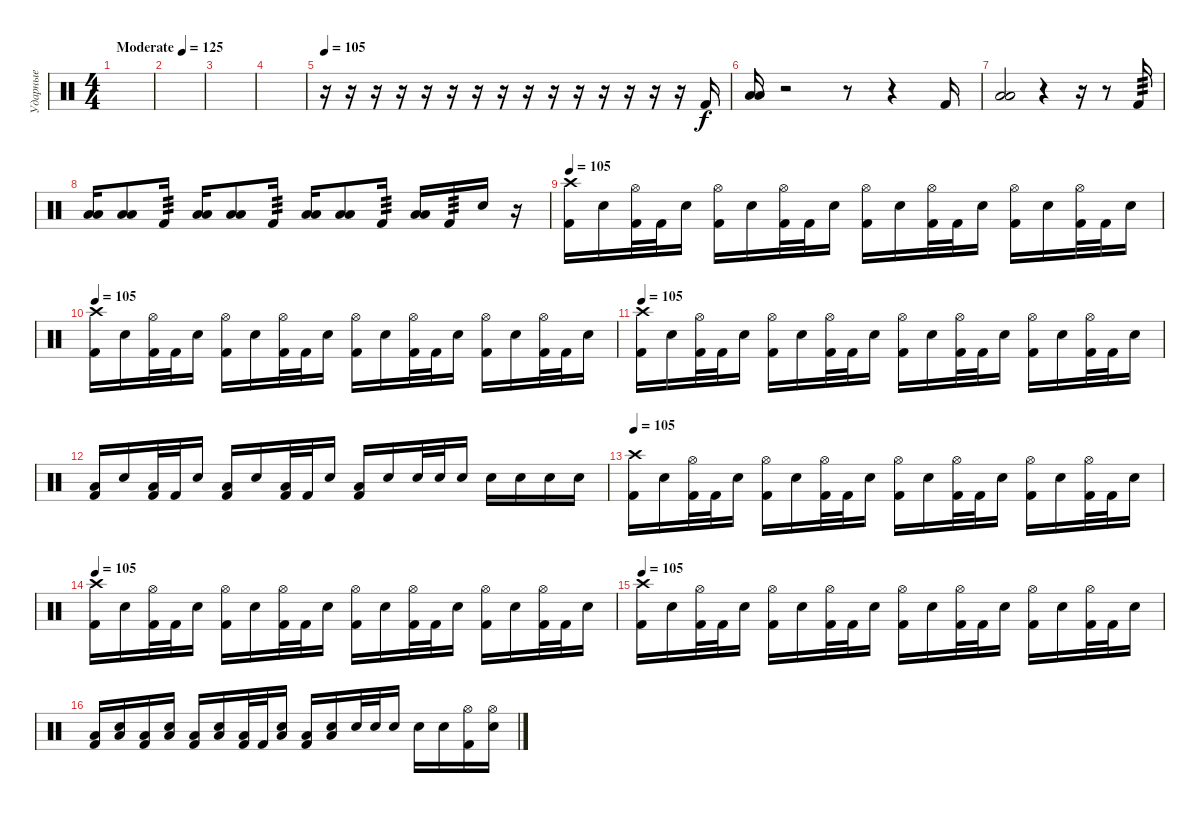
\track ("Ударные" "Ударные") {instrument percussion}
\staff {score}
\articulation defaults
\ts (4 4)
\tempo (125 "Moderate")
\clef neutral
\ks c
|
|
|
|
\tempo 105
r.16 r.16 r.16 r.16 r.16 r.16 r.16 r.16 r.16 r.16 r.16 r.16 r.16 r.16 r.16 "Kick (hit) 2".16 |
("Low Floor Tom (hit)" "Low Tom (hit)").16 r.2 r.8 r.4 "Kick (hit) 2".16 |
("Low Floor Tom (hit)" "Low Tom (hit)").2 r.4 r.16 r.8 "Kick (hit) 2".16{tp 3} |
("Low Floor Tom (hit)" "Low Tom (hit)").16 ("Low Floor Tom (hit)" "Low Tom (hit)").8 "Kick (hit) 2".16{tp 3} ("Low Floor Tom (hit)" "Low Tom (hit)").16 ("Low Floor Tom (hit)" "Low Tom (hit)").8 "Kick (hit) 2".16{tp 3} ("Low Floor Tom (hit)" "Low Tom (hit)").16 ("Low Floor Tom (hit)" "Low Tom (hit)").8 "Kick (hit) 2".16{tp 3} ("Low Floor Tom (hit)" "Low Tom (hit)").16 "Kick (hit) 2".16{tp 3} "Snare (hit) 2".16 r.16 |
\tempo 105
("Crash high (hit)" "Kick (hit) 2").16 "Snare (hit) 2".16 ("Hi-Hat (open)" "Kick (hit) 2").32 "Kick (hit) 2".32 "Snare (hit) 2".16 ("Hi-Hat (open)" "Kick (hit) 2").16 "Snare (hit) 2".16 ("Hi-Hat (open)" "Kick (hit) 2").32 "Kick (hit) 2".32 "Snare (hit) 2".16 ("Hi-Hat (open)" "Kick (hit) 2").16 "Snare (hit) 2".16 ("Hi-Hat (open)" "Kick (hit) 2").32 "Kick (hit) 2".32 "Snare (hit) 2".16 ("Hi-Hat (open)" "Kick (hit) 2").16 "Snare (hit) 2".16 ("Hi-Hat (open)" "Kick (hit) 2").32 "Kick (hit) 2".32 "Snare (hit) 2".16 |
\tempo 105
("Crash high (hit)" "Kick (hit) 2").16 "Snare (hit) 2".16 ("Hi-Hat (open)" "Kick (hit) 2").32 "Kick (hit) 2".32 "Snare (hit) 2".16 ("Hi-Hat (open)" "Kick (hit) 2").16 "Snare (hit) 2".16 ("Hi-Hat (open)" "Kick (hit) 2").32 "Kick (hit) 2".32 "Snare (hit) 2".16 ("Hi-Hat (open)" "Kick (hit) 2").16 "Snare (hit) 2".16 ("Hi-Hat (open)" "Kick (hit) 2").32 "Kick (hit) 2".32 "Snare (hit) 2".16 ("Hi-Hat (open)" "Kick (hit) 2").16 "Snare (hit) 2".16 ("Hi-Hat (open)" "Kick (hit) 2").32 "Kick (hit) 2".32 "Snare (hit) 2".16 |
\tempo 105
("Crash high (hit)" "Kick (hit) 2").16 "Snare (hit) 2".16 ("Hi-Hat (open)" "Kick (hit) 2").32 "Kick (hit) 2".32 "Snare (hit) 2".16 ("Hi-Hat (open)" "Kick (hit) 2").16 "Snare (hit) 2".16 ("Hi-Hat (open)" "Kick (hit) 2").32 "Kick (hit) 2".32 "Snare (hit) 2".16 ("Hi-Hat (open)" "Kick (hit) 2").16 "Snare (hit) 2".16 ("Hi-Hat (open)" "Kick (hit) 2").32 "Kick (hit) 2".32 "Snare (hit) 2".16 ("Hi-Hat (open)" "Kick (hit) 2").16 "Snare (hit) 2".16 ("Hi-Hat (open)" "Kick (hit) 2").32 "Kick (hit) 2".32 "Snare (hit) 2".16 |
("Low Floor Tom (hit)" "Kick (hit) 2").16 "Snare (hit) 2".16 ("Low Floor Tom (hit)" "Kick (hit) 2").32 "Kick (hit) 2".32 "Snare (hit) 2".16 ("Low Floor Tom (hit)" "Kick (hit) 2").16 "Snare (hit) 2".16 ("Low Floor Tom (hit)" "Kick (hit) 2").32 "Kick (hit) 2".32 "Snare (hit) 2".16 ("Low Floor Tom (hit)" "Kick (hit) 2").16 "Snare (hit) 2".16 "Snare (hit) 2".32 "Snare (hit) 2".32 "Snare (hit) 2".16 "Snare (hit) 2".16 "Snare (hit) 2".16 "Snare (hit) 2".16 "Snare (hit) 2".16 |
\tempo 105
("Crash high (hit)" "Kick (hit) 2").16 "Snare (hit) 2".16 ("Hi-Hat (open)" "Kick (hit) 2").32 "Kick (hit) 2".32 "Snare (hit) 2".16 ("Hi-Hat (open)" "Kick (hit) 2").16 "Snare (hit) 2".16 ("Hi-Hat (open)" "Kick (hit) 2").32 "Kick (hit) 2".32 "Snare (hit) 2".16 ("Hi-Hat (open)" "Kick (hit) 2").16 "Snare (hit) 2".16 ("Hi-Hat (open)" "Kick (hit) 2").32 "Kick (hit) 2".32 "Snare (hit) 2".16 ("Hi-Hat (open)" "Kick (hit) 2").16 "Snare (hit) 2".16 ("Hi-Hat (open)" "Kick (hit) 2").32 "Kick (hit) 2".32 "Snare (hit) 2".16 |
\tempo 105
("Crash high (hit)" "Kick (hit) 2").16 "Snare (hit) 2".16 ("Hi-Hat (open)" "Kick (hit) 2").32 "Kick (hit) 2".32 "Snare (hit) 2".16 ("Hi-Hat (open)" "Kick (hit) 2").16 "Snare (hit) 2".16 ("Hi-Hat (open)" "Kick (hit) 2").32 "Kick (hit) 2".32 "Snare (hit) 2".16 ("Hi-Hat (open)" "Kick (hit) 2").16 "Snare (hit) 2".16 ("Hi-Hat (open)" "Kick (hit) 2").32 "Kick (hit) 2".32 "Snare (hit) 2".16 ("Hi-Hat (open)" "Kick (hit) 2").16 "Snare (hit) 2".16 ("Hi-Hat (open)" "Kick (hit) 2").32 "Kick (hit) 2".32 "Snare (hit) 2".16 |
\tempo 105
("Crash high (hit)" "Kick (hit) 2").16 "Snare (hit) 2".16 ("Hi-Hat (open)" "Kick (hit) 2").32 "Kick (hit) 2".32 "Snare (hit) 2".16 ("Hi-Hat (open)" "Kick (hit) 2").16 "Snare (hit) 2".16 ("Hi-Hat (open)" "Kick (hit) 2").32 "Kick (hit) 2".32 "Snare (hit) 2".16 ("Hi-Hat (open)" "Kick (hit) 2").16 "Snare (hit) 2".16 ("Hi-Hat (open)" "Kick (hit) 2").32 "Kick (hit) 2".32 "Snare (hit) 2".16 ("Hi-Hat (open)" "Kick (hit) 2").16 "Snare (hit) 2".16 ("Hi-Hat (open)" "Kick (hit) 2").32 "Kick (hit) 2".32 "Snare (hit) 2".16 |
("Low Floor Tom (hit)" "Kick (hit) 2").16 ("Low Floor Tom (hit)" "Snare (hit) 2").16 ("Low Floor Tom (hit)" "Kick (hit) 2").16 ("Low Floor Tom (hit)" "Snare (hit) 2").16 ("Low Floor Tom (hit)" "Kick (hit) 2").16 ("Low Floor Tom (hit)" "Snare (hit) 2").16 ("Low Floor Tom (hit)" "Kick (hit) 2").32 "Kick (hit) 2".32 ("Low Floor Tom (hit)" "Snare (hit) 2").16 ("Low Floor Tom (hit)" "Kick (hit) 2").16 ("Low Floor Tom (hit)" "Snare (hit) 2").16 "Snare (hit) 2".32 "Snare (hit) 2".32 "Snare (hit) 2".16 "Snare (hit) 2".16 "Snare (hit) 2".16 ("Hi-Hat (open)" "Kick (hit) 2").16 ("Hi-Hat (open)" "Snare (hit) 2").16
